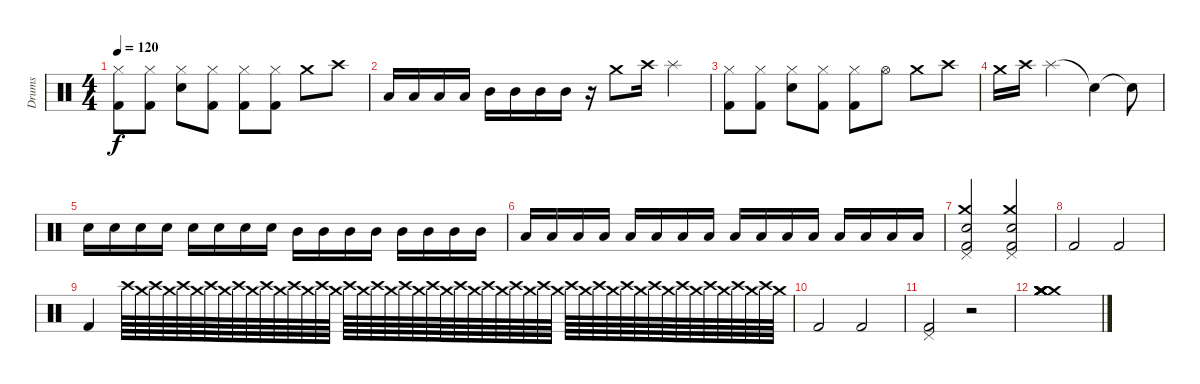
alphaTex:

\track ("Drums" "Drums") {instrument percussion}
\staff {score}
\articulation defaults
\ts (4 4)
\tempo 120
\clef neutral
\ks c
("Kick (hit) 2" "Hi-Hat (closed)").8{dy f} ("Kick (hit) 2" "Hi-Hat (closed)").8 ("Snare (hit) 2" "Hi-Hat (closed)").8 ("Kick (hit) 2" "Hi-Hat (closed)").8 ("Kick (hit) 2" "Hi-Hat (closed)").8 ("Kick (hit) 2" "Hi-Hat (closed)").8 "Crash medium (hit)".8 "Crash high (hit)".8 |
"Low Tom (hit)".16 "Low Tom (hit)".16 "Low Tom (hit)".16 "Low Tom (hit)".16 "Mid Tom (hit)".16 "Mid Tom (hit)".16 "Mid Tom (hit)".16 "Mid Tom (hit)".16 r.16 "Crash medium (hit)".8 "Crash high (hit)".16 "Splash (hit)".4 |
("Kick (hit) 2" "Hi-Hat (closed)").8 ("Kick (hit) 2" "Hi-Hat (closed)").8 ("Snare (hit) 2" "Hi-Hat (closed)").8 ("Kick (hit) 2" "Hi-Hat (closed)").8 ("Kick (hit) 2" "Hi-Hat (closed)").8 "Hi-Hat (open)".8 "Crash medium (hit)".8 "Crash high (hit)".8 |
"Crash medium (hit)".16 "Crash high (hit)".16 "Splash (hit)".2 "Snare (hit)"{t}.4 "Snare (hit)"{t}.8 |
"Snare (hit) 2".16 "Snare (hit) 2".16 "Snare (hit) 2".16 "Snare (hit) 2".16 "Snare (hit) 2".16 "Snare (hit) 2".16 "Snare (hit) 2".16 "Snare (hit) 2".16 "Mid Tom (hit)".16 "Mid Tom (hit)".16 "Mid Tom (hit)".16 "Mid Tom (hit)".16 "Mid Tom (hit)".16 "Mid Tom (hit)".16 "Mid Tom (hit)".16 "Mid Tom (hit)".16 |
"Low Tom (hit)".16 "Low Tom (hit)".16 "Low Tom (hit)".16 "Low Tom (hit)".16 "Low Tom (hit)".16 "Low Tom (hit)".16 "Low Tom (hit)".16 "Low Tom (hit)".16 "Low Tom (hit)".16 "Low Tom (hit)".16 "Low Tom (hit)".16 "Low Tom (hit)".16 "Low Tom (hit)".16 "Low Tom (hit)".16 "Low Tom (hit)".16 "Low Tom (hit)".16 |
("Crash medium (hit)" "Snare (hit) 2" "Kick (hit) 2" "Pedal Hi-Hat (hit)").2 ("Crash medium (hit)" "Snare (hit) 2" "Kick (hit) 2" "Pedal Hi-Hat (hit)").2 |
"Kick (hit) 2".2 "Kick (hit) 2".2 |
"Kick (hit) 2".4 "Crash high (hit)".64 "Crash medium (hit)".64 "Crash high (hit)".64 "Crash medium (hit)".64 "Crash high (hit)".64 "Crash medium (hit)".64 "Crash high (hit)".64 "Crash medium (hit)".64 "Crash high (hit)".64 "Crash medium (hit)".64 "Crash high (hit)".64 "Crash medium (hit)".64 "Crash high (hit)".64 "Crash medium (hit)".64 "Crash high (hit)".64 "Crash medium (hit)".64 "Crash high (hit)".64 "Crash medium (hit)".64 "Crash high (hit)".64 "Crash medium (hit)".64 "Crash high (hit)".64 "Crash medium (hit)".64 "Crash high (hit)".64 "Crash medium (hit)".64 "Crash high (hit)".64 "Crash medium (hit)".64 "Crash high (hit)".64 "Crash medium (hit)".64 "Crash high (hit)".64 "Crash medium (hit)".64 "Crash high (hit)".64 "Crash medium (hit)".64 "Crash high (hit)".64 "Crash medium (hit)".64 "Crash high (hit)".64 "Crash medium (hit)".64 "Crash high (hit)".64 "Crash medium (hit)".64 "Crash high (hit)".64 "Crash medium (hit)".64 "Crash high (hit)".64 "Crash medium (hit)".64 "Crash high (hit)".64 "Crash medium (hit)".64 "Crash high (hit)".64 "Crash medium (hit)".64 "Crash high (hit)".64 "Crash medium (hit)".64 |
"Kick (hit) 2".2 "Kick (hit) 2".2 |
("Kick (hit) 2" "Pedal Hi-Hat (hit)").2 r.2 |
("Crash medium (hit)" "Crash medium (hit)" "Crash medium (hit)" "Crash medium (hit)" "Crash medium (hit)" "Crash medium (hit)").1
